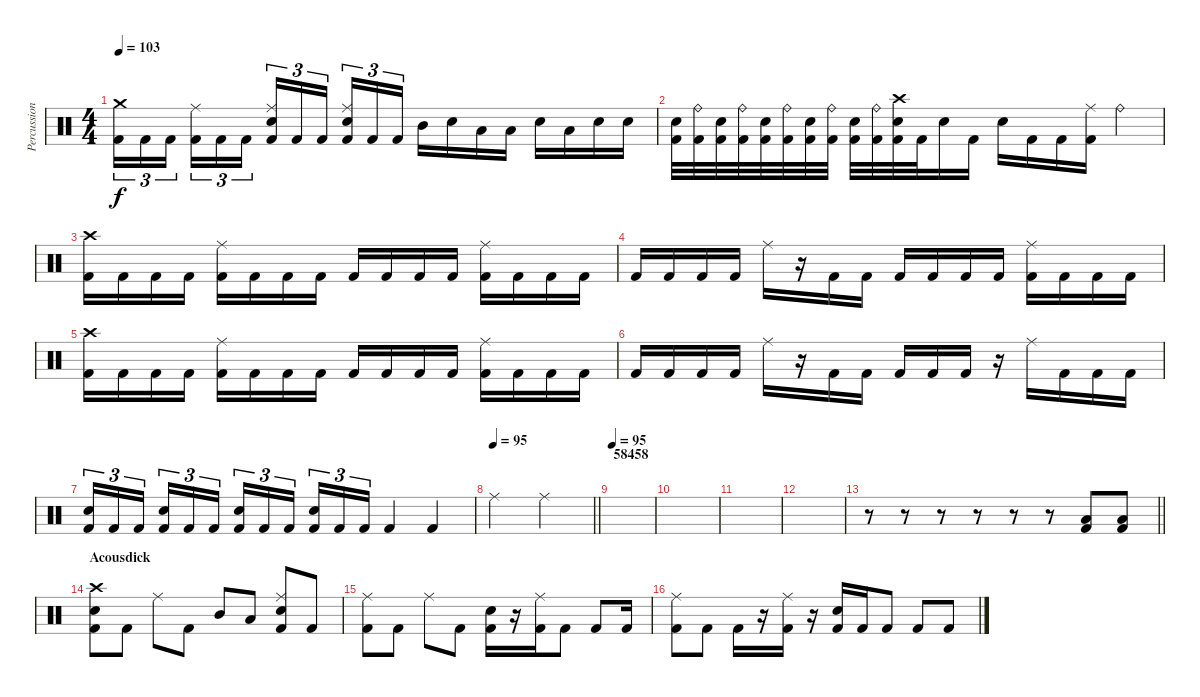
\track ("Percussion" "Percussion") {instrument percussion}
\staff {score}
\articulation defaults
\ts (4 4)
\tempo 103
\clef neutral
\ks c
("Crash medium (hit)" "Kick (hit) 2").16{tu (3 2) dy f} "Kick (hit) 2".16{tu (3 2)} "Kick (hit) 2".16{tu (3 2)} ("Ride (middle)" "Kick (hit) 2").16{tu (3 2)} "Kick (hit) 2".16{tu (3 2)} "Kick (hit) 2".16{tu (3 2)} ("Ride (middle)" "Electric Snare (hit)" "Kick (hit) 2").16{tu (3 2)} "Kick (hit) 2".16{tu (3 2)} "Kick (hit) 2".16{tu (3 2)} ("Ride (middle)" "Electric Snare (hit)" "Kick (hit) 2").16{tu (3 2)} "Kick (hit) 2".16{tu (3 2)} "Kick (hit) 2".16{tu (3 2)} "Mid Tom (hit)".16 "Electric Snare (hit)".16 "Low Tom (hit)".16 "Low Tom (hit)".16 "Electric Snare (hit)".16 "Low Tom (hit)".16 "Electric Snare (hit)".16 "Electric Snare (hit)".16 |
("Electric Snare (hit)" "Kick (hit) 2").32 ("Ride (bell)" "Kick (hit) 2").32 ("Electric Snare (hit)" "Kick (hit) 2").32 ("Ride (bell)" "Kick (hit) 2").32 ("Electric Snare (hit)" "Kick (hit) 2").32 ("Ride (bell)" "Kick (hit) 2").32 ("Electric Snare (hit)" "Kick (hit) 2").32 ("Ride (bell)" "Kick (hit) 2").32 ("Electric Snare (hit)" "Kick (hit) 2").32 ("Ride (bell)" "Kick (hit) 2").32 ("Crash high (hit)" "Electric Snare (hit)" "Kick (hit) 2").32 "Kick (hit) 2".32 "Electric Snare (hit)".16 "Kick (hit) 2".16 "Electric Snare (hit)".16 "Kick (hit) 2".16 "Kick (hit) 2".16 ("Ride (middle)" "Kick (hit) 2").16 "Ride (bell)".4 |
("Crash high (hit)" "Kick (hit) 2").16 "Kick (hit) 2".16 "Kick (hit) 2".16 "Kick (hit) 2".16 ("Ride (middle)" "Kick (hit) 2").16 "Kick (hit) 2".16 "Kick (hit) 2".16 "Kick (hit) 2".16 "Kick (hit) 2".16 "Kick (hit) 2".16 "Kick (hit) 2".16 "Kick (hit) 2".16 ("Ride (middle)" "Kick (hit) 2").16 "Kick (hit) 2".16 "Kick (hit) 2".16 "Kick (hit) 2".16 |
"Kick (hit) 2".16 "Kick (hit) 2".16 "Kick (hit) 2".16 "Kick (hit) 2".16 "Ride (middle)".16 r.16 "Kick (hit) 2".16 "Kick (hit) 2".16 "Kick (hit) 2".16 "Kick (hit) 2".16 "Kick (hit) 2".16 "Kick (hit) 2".16 ("Ride (middle)" "Kick (hit) 2").16 "Kick (hit) 2".16 "Kick (hit) 2".16 "Kick (hit) 2".16 |
("Crash high (hit)" "Kick (hit) 2").16 "Kick (hit) 2".16 "Kick (hit) 2".16 "Kick (hit) 2".16 ("Ride (middle)" "Kick (hit) 2").16 "Kick (hit) 2".16 "Kick (hit) 2".16 "Kick (hit) 2".16 "Kick (hit) 2".16 "Kick (hit) 2".16 "Kick (hit) 2".16 "Kick (hit) 2".16 ("Ride (middle)" "Kick (hit) 2").16 "Kick (hit) 2".16 "Kick (hit) 2".16 "Kick (hit) 2".16 |
"Kick (hit) 2".16 "Kick (hit) 2".16 "Kick (hit) 2".16 "Kick (hit) 2".16 "Ride (middle)".16 r.16 "Kick (hit) 2".16 "Kick (hit) 2".16 "Kick (hit) 2".16 "Kick (hit) 2".16 "Kick (hit) 2".16 r.16 "Ride (middle)".16 "Kick (hit) 2".16 "Kick (hit) 2".16 "Kick (hit) 2".16 |
("Electric Snare (hit)" "Kick (hit) 2").16{tu (3 2)} "Kick (hit) 2".16{tu (3 2)} "Kick (hit) 2".16{tu (3 2)} ("Electric Snare (hit)" "Kick (hit) 2").16{tu (3 2)} "Kick (hit) 2".16{tu (3 2)} "Kick (hit) 2".16{tu (3 2)} ("Electric Snare (hit)" "Kick (hit) 2").16{tu (3 2)} "Kick (hit) 2".16{tu (3 2)} "Kick (hit) 2".16{tu (3 2)} ("Electric Snare (hit)" "Kick (hit) 2").16{tu (3 2)} "Kick (hit) 2".16{tu (3 2)} "Kick (hit) 2".16{tu (3 2)} "Kick (hit) 2".4 "Kick (hit) 2".4 |
\tempo 95
\barLineRight lightlight "Ride (middle)".2 "Ride (middle)".2
|
\section ("" "58458")
\tempo 95
|
|
|
|
\barLineRight lightlight
r.8 r.8 r.8 r.8 r.8 r.8 ("Low Tom (hit)" "Kick (hit) 2").8 ("Low Tom (hit)" "Kick (hit) 2").8 |
\section ("" "Acousdick")
("Crash high (hit)" "Electric Snare (hit)" "Kick (hit) 2").8 "Kick (hit) 2".8 "Ride (middle)".8 "Kick (hit) 2".8 "Mid Tom (hit)".8 "Low Tom (hit)".8 ("Ride (middle)" "Electric Snare (hit)" "Kick (hit) 2").8 "Kick (hit) 2".8 |
("Ride (middle)" "Kick (hit) 2").8 "Kick (hit) 2".8 "Ride (middle)".8 "Kick (hit) 2".8 ("Electric Snare (hit)" "Kick (hit) 2").16 r.16 ("Ride (middle)" "Kick (hit) 2").16 "Kick (hit) 2".8 "Kick (hit) 2".8 "Kick (hit) 2".16 |
("Ride (middle)" "Kick (hit) 2").8 "Kick (hit) 2".8 "Kick (hit) 2".16 r.16 ("Ride (middle)" "Kick (hit) 2").16 r.16 ("Electric Snare (hit)" "Kick (hit) 2").16 "Kick (hit) 2".16 "Kick (hit) 2".8 "Kick (hit) 2".8 "Kick (hit) 2".8
